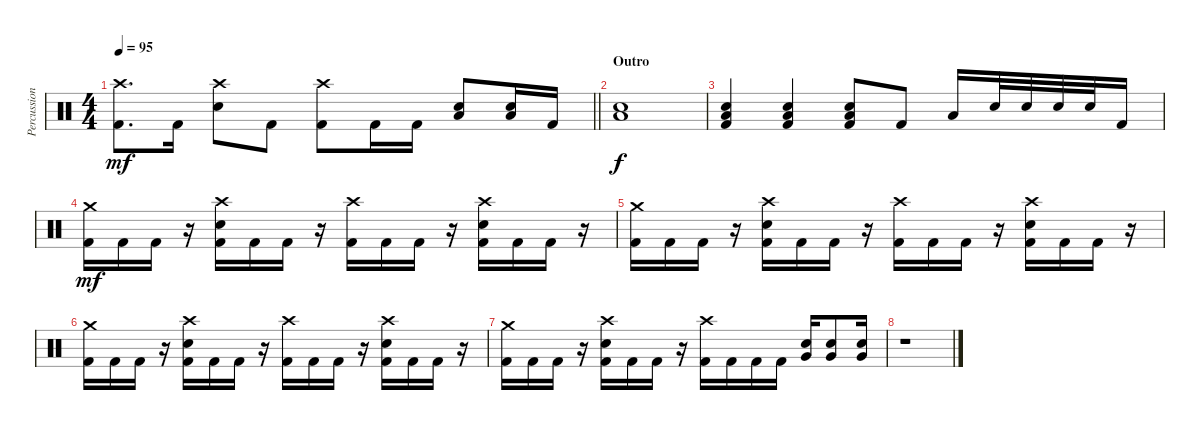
\track ("Percussion" "Percussion") {instrument percussion}
\staff {score}
\articulation defaults
\ts (4 4)
\tempo 95
\clef neutral
\barLineRight lightlight
\ks c
("Crash high (hit)" "Kick (hit) 2").8{d dy mf} "Kick (hit) 2".16 ("Crash high (hit)" "Snare (hit) 2").8 "Kick (hit) 2".8 ("Crash high (hit)" "Kick (hit) 2").8 "Kick (hit) 2".16 "Kick (hit) 2".16 ("Low Floor Tom (hit)" "Snare (hit) 2").8 ("Low Floor Tom (hit)" "Snare (hit) 2").16 "Kick (hit) 2".16 |
\section ("" "Outro")
("Low Floor Tom (hit)" "Snare (hit) 2").1{dy f} |
("Low Floor Tom (hit)" "Snare (hit) 2" "Kick (hit) 2").4 ("Low Floor Tom (hit)" "Snare (hit) 2" "Kick (hit) 2").4 ("Low Floor Tom (hit)" "Snare (hit) 2" "Kick (hit) 2").8 "Kick (hit) 2".8 "Low Floor Tom (hit)".16 "Snare (hit) 2".32 "Snare (hit) 2".32 "Snare (hit) 2".32 "Snare (hit) 2".32 "Kick (hit) 2".16 |
("Crash medium (hit)" "Kick (hit) 2").16{dy mf} "Kick (hit) 2".16 "Kick (hit) 2".16 r.16 ("Crash high (hit)" "Snare (hit) 2" "Kick (hit) 2").16 "Kick (hit) 2".16 "Kick (hit) 2".16 r.16 ("Crash high (hit)" "Kick (hit) 2").16 "Kick (hit) 2".16 "Kick (hit) 2".16 r.16 ("Crash high (hit)" "Snare (hit) 2" "Kick (hit) 2").16 "Kick (hit) 2".16 "Kick (hit) 2".16 r.16 |
("Crash medium (hit)" "Kick (hit) 2").16 "Kick (hit) 2".16 "Kick (hit) 2".16 r.16 ("Crash high (hit)" "Snare (hit) 2" "Kick (hit) 2").16 "Kick (hit) 2".16 "Kick (hit) 2".16 r.16 ("Crash high (hit)" "Kick (hit) 2").16 "Kick (hit) 2".16 "Kick (hit) 2".16 r.16 ("Crash high (hit)" "Snare (hit) 2" "Kick (hit) 2").16 "Kick (hit) 2".16 "Kick (hit) 2".16 r.16 |
("Crash medium (hit)" "Kick (hit) 2").16 "Kick (hit) 2".16 "Kick (hit) 2".16 r.16 ("Crash high (hit)" "Snare (hit) 2" "Kick (hit) 2").16 "Kick (hit) 2".16 "Kick (hit) 2".16 r.16 ("Crash high (hit)" "Kick (hit) 2").16 "Kick (hit) 2".16 "Kick (hit) 2".16 r.16 ("Crash high (hit)" "Snare (hit) 2" "Kick (hit) 2").16 "Kick (hit) 2".16 "Kick (hit) 2".16 r.16 |
("Crash medium (hit)" "Kick (hit) 2").16 "Kick (hit) 2".16 "Kick (hit) 2".16 r.16 ("Crash high (hit)" "Snare (hit) 2" "Kick (hit) 2").16 "Kick (hit) 2".16 "Kick (hit) 2".16 r.16 ("Crash high (hit)" "Kick (hit) 2").16 "Kick (hit) 2".16 "Kick (hit) 2".16 "Kick (hit) 2".16 ("Snare (hit) 2" "Very Low Tom (hit)").16 ("Snare (hit) 2" "Very Low Tom (hit)").8 ("Snare (hit) 2" "Very Low Tom (hit)").16 |
r.1
